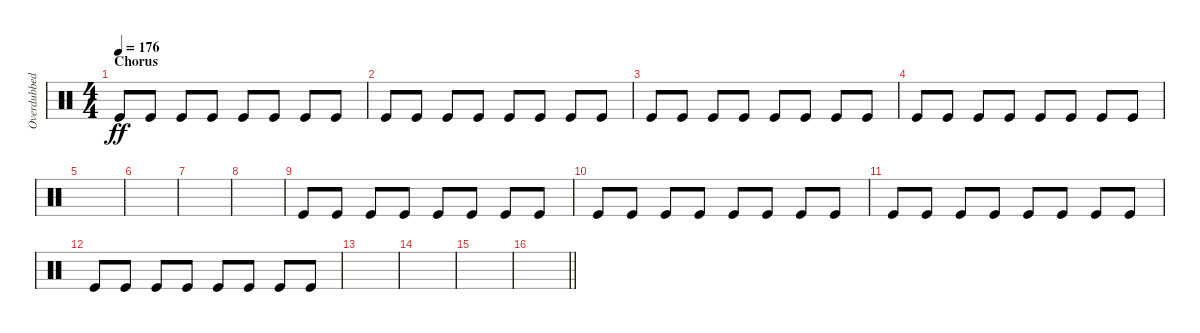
\track ("Overdubbed bass drum" "Overdubbed") {instrument percussion}
\staff {score}
\articulation defaults
\ts (4 4)
\section ("" "Chorus")
\tempo 176
\clef neutral
\ks c "Kick (hit)".8{dy ff} "Kick (hit)".8 "Kick (hit)".8 "Kick (hit)".8 "Kick (hit)".8 "Kick (hit)".8 "Kick (hit)".8 "Kick (hit)".8
|
"Kick (hit)".8 "Kick (hit)".8 "Kick (hit)".8 "Kick (hit)".8 "Kick (hit)".8 "Kick (hit)".8 "Kick (hit)".8 "Kick (hit)".8 |
"Kick (hit)".8 "Kick (hit)".8 "Kick (hit)".8 "Kick (hit)".8 "Kick (hit)".8 "Kick (hit)".8 "Kick (hit)".8 "Kick (hit)".8 |
"Kick (hit)".8 "Kick (hit)".8 "Kick (hit)".8 "Kick (hit)".8 "Kick (hit)".8 "Kick (hit)".8 "Kick (hit)".8 "Kick (hit)".8 |
|
|
|
|
"Kick (hit)".8 "Kick (hit)".8 "Kick (hit)".8 "Kick (hit)".8 "Kick (hit)".8 "Kick (hit)".8 "Kick (hit)".8 "Kick (hit)".8 |
"Kick (hit)".8 "Kick (hit)".8 "Kick (hit)".8 "Kick (hit)".8 "Kick (hit)".8 "Kick (hit)".8 "Kick (hit)".8 "Kick (hit)".8 |
"Kick (hit)".8 "Kick (hit)".8 "Kick (hit)".8 "Kick (hit)".8 "Kick (hit)".8 "Kick (hit)".8 "Kick (hit)".8 "Kick (hit)".8 |
"Kick (hit)".8 "Kick (hit)".8 "Kick (hit)".8 "Kick (hit)".8 "Kick (hit)".8 "Kick (hit)".8 "Kick (hit)".8 "Kick (hit)".8 |
|
|
|
\barLineRight lightlight
